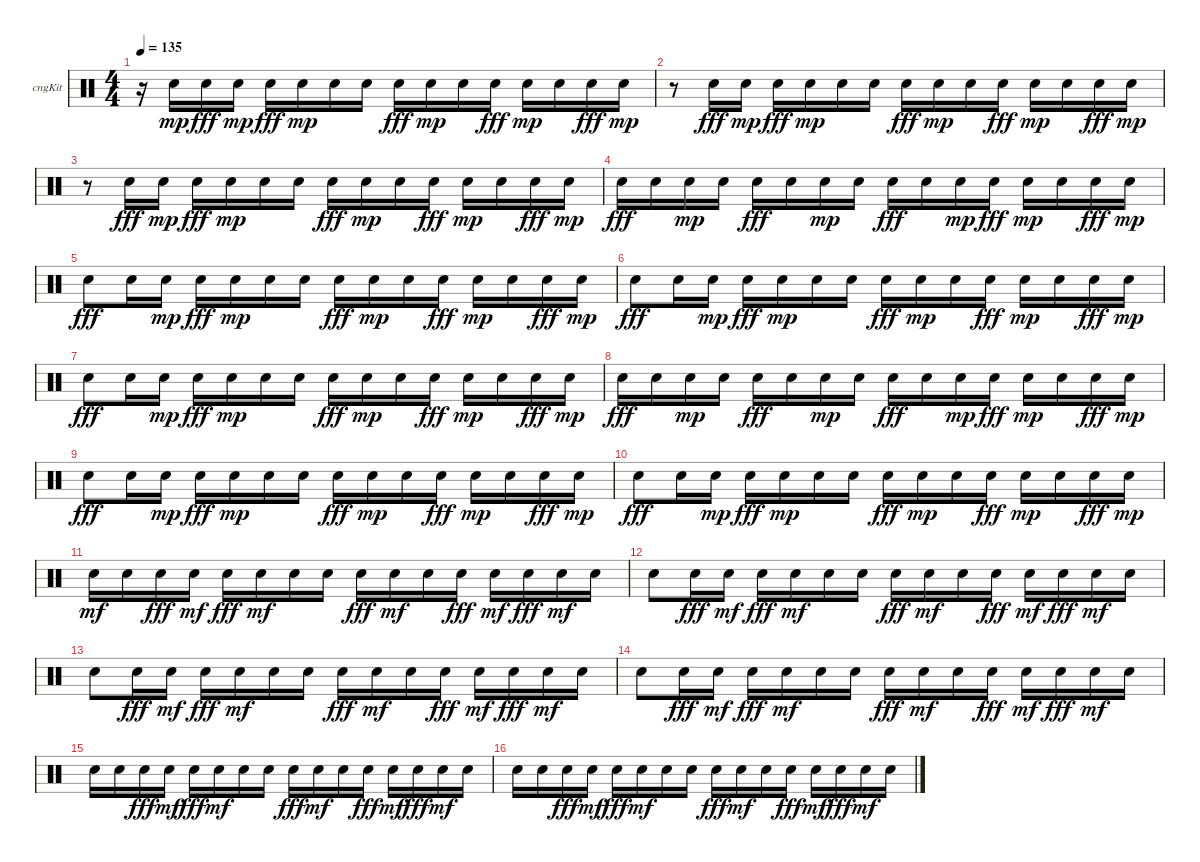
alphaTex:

\defaultSystemsLayout 4
\bracketExtendMode groupsimilarinstruments
\firstSystemTrackNameOrientation horizontal
\otherSystemsTrackNameOrientation horizontal
\track ("Congas" "cngKit") {instrument percussion}
\staff {score}
\articulation defaults
\ts (4 4)
\tempo 135
\clef neutral
\scale
0.333333
\ks c
r.16{dy mp} "Snare (hit) 2".16 "Snare (hit) 2".16{dy fff} "Snare (hit) 2".16{dy mp} "Snare (hit) 2".16{dy fff} "Snare (hit) 2".16{dy mp} "Snare (hit) 2".16 "Snare (hit) 2".16 "Snare (hit) 2".16{dy fff} "Snare (hit) 2".16{dy mp} "Snare (hit) 2".16 "Snare (hit) 2".16{dy fff} "Snare (hit) 2".16{dy mp} "Snare (hit) 2".16 "Snare (hit) 2".16{dy fff} "Snare (hit) 2".16{dy mp} |
\scale
0.333333 r.8 "Snare (hit) 2".16{dy fff} "Snare (hit) 2".16{dy mp} "Snare (hit) 2".16{dy fff} "Snare (hit) 2".16{dy mp} "Snare (hit) 2".16 "Snare (hit) 2".16 "Snare (hit) 2".16{dy fff} "Snare (hit) 2".16{dy mp} "Snare (hit) 2".16 "Snare (hit) 2".16{dy fff} "Snare (hit) 2".16{dy mp} "Snare (hit) 2".16 "Snare (hit) 2".16{dy fff} "Snare (hit) 2".16{dy mp} |
\scale
0.333333 r.8 "Snare (hit) 2".16{dy fff} "Snare (hit) 2".16{dy mp} "Snare (hit) 2".16{dy fff} "Snare (hit) 2".16{dy mp} "Snare (hit) 2".16 "Snare (hit) 2".16 "Snare (hit) 2".16{dy fff} "Snare (hit) 2".16{dy mp} "Snare (hit) 2".16 "Snare (hit) 2".16{dy fff} "Snare (hit) 2".16{dy mp} "Snare (hit) 2".16 "Snare (hit) 2".16{dy fff} "Snare (hit) 2".16{dy mp} |
\scale
0.333333 "Snare (hit) 2".16{dy fff} "Snare (hit) 2".16 "Snare (hit) 2".16{dy mp} "Snare (hit) 2".16 "Snare (hit) 2".16{dy fff} "Snare (hit) 2".16 "Snare (hit) 2".16{dy mp} "Snare (hit) 2".16 "Snare (hit) 2".16{dy fff} "Snare (hit) 2".16 "Snare (hit) 2".16{dy mp} "Snare (hit) 2".16{dy fff} "Snare (hit) 2".16{dy mp} "Snare (hit) 2".16 "Snare (hit) 2".16{dy fff} "Snare (hit) 2".16{dy mp} |
\scale
0.333333 "Snare (hit) 2".8{dy fff} "Snare (hit) 2".16 "Snare (hit) 2".16{dy mp} "Snare (hit) 2".16{dy fff} "Snare (hit) 2".16{dy mp} "Snare (hit) 2".16 "Snare (hit) 2".16 "Snare (hit) 2".16{dy fff} "Snare (hit) 2".16{dy mp} "Snare (hit) 2".16 "Snare (hit) 2".16{dy fff} "Snare (hit) 2".16{dy mp} "Snare (hit) 2".16 "Snare (hit) 2".16{dy fff} "Snare (hit) 2".16{dy mp} |
\scale
0.333333 "Snare (hit) 2".8{dy fff} "Snare (hit) 2".16 "Snare (hit) 2".16{dy mp} "Snare (hit) 2".16{dy fff} "Snare (hit) 2".16{dy mp} "Snare (hit) 2".16 "Snare (hit) 2".16 "Snare (hit) 2".16{dy fff} "Snare (hit) 2".16{dy mp} "Snare (hit) 2".16 "Snare (hit) 2".16{dy fff} "Snare (hit) 2".16{dy mp} "Snare (hit) 2".16 "Snare (hit) 2".16{dy fff} "Snare (hit) 2".16{dy mp} |
\scale
0.333333 "Snare (hit) 2".8{dy fff} "Snare (hit) 2".16 "Snare (hit) 2".16{dy mp} "Snare (hit) 2".16{dy fff} "Snare (hit) 2".16{dy mp} "Snare (hit) 2".16 "Snare (hit) 2".16 "Snare (hit) 2".16{dy fff} "Snare (hit) 2".16{dy mp} "Snare (hit) 2".16 "Snare (hit) 2".16{dy fff} "Snare (hit) 2".16{dy mp} "Snare (hit) 2".16 "Snare (hit) 2".16{dy fff} "Snare (hit) 2".16{dy mp} |
\scale
0.333333 "Snare (hit) 2".16{dy fff} "Snare (hit) 2".16 "Snare (hit) 2".16{dy mp} "Snare (hit) 2".16 "Snare (hit) 2".16{dy fff} "Snare (hit) 2".16 "Snare (hit) 2".16{dy mp} "Snare (hit) 2".16 "Snare (hit) 2".16{dy fff} "Snare (hit) 2".16 "Snare (hit) 2".16{dy mp} "Snare (hit) 2".16{dy fff} "Snare (hit) 2".16{dy mp} "Snare (hit) 2".16 "Snare (hit) 2".16{dy fff} "Snare (hit) 2".16{dy mp} |
\scale
0.333333 "Snare (hit) 2".8{dy fff} "Snare (hit) 2".16 "Snare (hit) 2".16{dy mp} "Snare (hit) 2".16{dy fff} "Snare (hit) 2".16{dy mp} "Snare (hit) 2".16 "Snare (hit) 2".16 "Snare (hit) 2".16{dy fff} "Snare (hit) 2".16{dy mp} "Snare (hit) 2".16 "Snare (hit) 2".16{dy fff} "Snare (hit) 2".16{dy mp} "Snare (hit) 2".16 "Snare (hit) 2".16{dy fff} "Snare (hit) 2".16{dy mp} |
\scale
0.333333 "Snare (hit) 2".8{dy fff} "Snare (hit) 2".16 "Snare (hit) 2".16{dy mp} "Snare (hit) 2".16{dy fff} "Snare (hit) 2".16{dy mp} "Snare (hit) 2".16 "Snare (hit) 2".16 "Snare (hit) 2".16{dy fff} "Snare (hit) 2".16{dy mp} "Snare (hit) 2".16 "Snare (hit) 2".16{dy fff} "Snare (hit) 2".16{dy mp} "Snare (hit) 2".16 "Snare (hit) 2".16{dy fff} "Snare (hit) 2".16{dy mp} |
\scale
0.333333 "Snare (hit) 2".16{dy mf} "Snare (hit) 2".16 "Snare (hit) 2".16{dy fff} "Snare (hit) 2".16{dy mf} "Snare (hit) 2".16{dy fff} "Snare (hit) 2".16{dy mf} "Snare (hit) 2".16 "Snare (hit) 2".16 "Snare (hit) 2".16{dy fff} "Snare (hit) 2".16{dy mf} "Snare (hit) 2".16 "Snare (hit) 2".16{dy fff} "Snare (hit) 2".16{dy mf} "Snare (hit) 2".16{dy fff} "Snare (hit) 2".16{dy mf} "Snare (hit) 2".16 |
\scale
0.333333 "Snare (hit) 2".8 "Snare (hit) 2".16{dy fff} "Snare (hit) 2".16{dy mf} "Snare (hit) 2".16{dy fff} "Snare (hit) 2".16{dy mf} "Snare (hit) 2".16 "Snare (hit) 2".16 "Snare (hit) 2".16{dy fff} "Snare (hit) 2".16{dy mf} "Snare (hit) 2".16 "Snare (hit) 2".16{dy fff} "Snare (hit) 2".16{dy mf} "Snare (hit) 2".16{dy fff} "Snare (hit) 2".16{dy mf} "Snare (hit) 2".16 |
\scale
0.333333 "Snare (hit) 2".8 "Snare (hit) 2".16{dy fff} "Snare (hit) 2".16{dy mf} "Snare (hit) 2".16{dy fff} "Snare (hit) 2".16{dy mf} "Snare (hit) 2".16 "Snare (hit) 2".16 "Snare (hit) 2".16{dy fff} "Snare (hit) 2".16{dy mf} "Snare (hit) 2".16 "Snare (hit) 2".16{dy fff} "Snare (hit) 2".16{dy mf} "Snare (hit) 2".16{dy fff} "Snare (hit) 2".16{dy mf} "Snare (hit) 2".16 |
\scale
0.333333 "Snare (hit) 2".8 "Snare (hit) 2".16{dy fff} "Snare (hit) 2".16{dy mf} "Snare (hit) 2".16{dy fff} "Snare (hit) 2".16{dy mf} "Snare (hit) 2".16 "Snare (hit) 2".16 "Snare (hit) 2".16{dy fff} "Snare (hit) 2".16{dy mf} "Snare (hit) 2".16 "Snare (hit) 2".16{dy fff} "Snare (hit) 2".16{dy mf} "Snare (hit) 2".16{dy fff} "Snare (hit) 2".16{dy mf} "Snare (hit) 2".16 |
\scale
0.333333 "Snare (hit) 2".16 "Snare (hit) 2".16 "Snare (hit) 2".16{dy fff} "Snare (hit) 2".16{dy mf} "Snare (hit) 2".16{dy fff} "Snare (hit) 2".16{dy mf} "Snare (hit) 2".16 "Snare (hit) 2".16 "Snare (hit) 2".16{dy fff} "Snare (hit) 2".16{dy mf} "Snare (hit) 2".16 "Snare (hit) 2".16{dy fff} "Snare (hit) 2".16{dy mf} "Snare (hit) 2".16{dy fff} "Snare (hit) 2".16{dy mf} "Snare (hit) 2".16 |
\scale
0.333333 "Snare (hit) 2".16 "Snare (hit) 2".16 "Snare (hit) 2".16{dy fff} "Snare (hit) 2".16{dy mf} "Snare (hit) 2".16{dy fff} "Snare (hit) 2".16{dy mf} "Snare (hit) 2".16 "Snare (hit) 2".16 "Snare (hit) 2".16{dy fff} "Snare (hit) 2".16{dy mf} "Snare (hit) 2".16 "Snare (hit) 2".16{dy fff} "Snare (hit) 2".16{dy mf} "Snare (hit) 2".16{dy fff} "Snare (hit) 2".16{dy mf} "Snare (hit) 2".16
